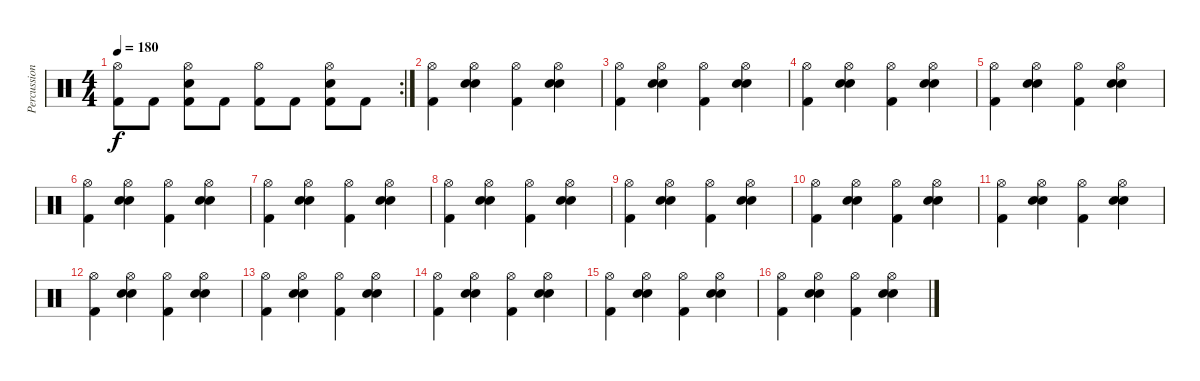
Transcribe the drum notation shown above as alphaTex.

\track ("Percussion" "Percussion") {instrument percussion}
\staff {score}
\articulation defaults
\rc 2
\ts (4 4)
\tempo 180
\clef neutral
\ks c
("Hi-Hat (open)" "Kick (hit) 2").8{dy f} "Kick (hit) 2".8 ("Hi-Hat (open)" "Snare (hit) 2" "Kick (hit) 2").8 "Kick (hit) 2".8 ("Hi-Hat (open)" "Kick (hit) 2").8 "Kick (hit) 2".8 ("Hi-Hat (open)" "Snare (hit) 2" "Kick (hit) 2").8 "Kick (hit) 2".8 |
("Hi-Hat (open)" "Kick (hit) 2").4 ("Hi-Hat (open)" "Snare (hit) 2" "Snare (hit) 2").4 ("Hi-Hat (open)" "Kick (hit) 2").4 ("Hi-Hat (open)" "Snare (hit) 2" "Snare (hit) 2").4 |
("Hi-Hat (open)" "Kick (hit) 2").4 ("Hi-Hat (open)" "Snare (hit) 2" "Snare (hit) 2").4 ("Hi-Hat (open)" "Kick (hit) 2").4 ("Hi-Hat (open)" "Snare (hit) 2" "Snare (hit) 2").4 |
("Hi-Hat (open)" "Kick (hit) 2").4 ("Hi-Hat (open)" "Snare (hit) 2" "Snare (hit) 2").4 ("Hi-Hat (open)" "Kick (hit) 2").4 ("Hi-Hat (open)" "Snare (hit) 2" "Snare (hit) 2").4 |
("Hi-Hat (open)" "Kick (hit) 2").4 ("Hi-Hat (open)" "Snare (hit) 2" "Snare (hit) 2").4 ("Hi-Hat (open)" "Kick (hit) 2").4 ("Hi-Hat (open)" "Snare (hit) 2" "Snare (hit) 2").4 |
("Hi-Hat (open)" "Kick (hit) 2").4 ("Hi-Hat (open)" "Snare (hit) 2" "Snare (hit) 2").4 ("Hi-Hat (open)" "Kick (hit) 2").4 ("Hi-Hat (open)" "Snare (hit) 2" "Snare (hit) 2").4 |
("Hi-Hat (open)" "Kick (hit) 2").4 ("Hi-Hat (open)" "Snare (hit) 2" "Snare (hit) 2").4 ("Hi-Hat (open)" "Kick (hit) 2").4 ("Hi-Hat (open)" "Snare (hit) 2" "Snare (hit) 2").4 |
("Hi-Hat (open)" "Kick (hit) 2").4 ("Hi-Hat (open)" "Snare (hit) 2" "Snare (hit) 2").4 ("Hi-Hat (open)" "Kick (hit) 2").4 ("Hi-Hat (open)" "Snare (hit) 2" "Snare (hit) 2").4 |
("Hi-Hat (open)" "Kick (hit) 2").4 ("Hi-Hat (open)" "Snare (hit) 2" "Snare (hit) 2").4 ("Hi-Hat (open)" "Kick (hit) 2").4 ("Hi-Hat (open)" "Snare (hit) 2" "Snare (hit) 2").4 |
("Hi-Hat (open)" "Kick (hit) 2").4 ("Hi-Hat (open)" "Snare (hit) 2" "Snare (hit) 2").4 ("Hi-Hat (open)" "Kick (hit) 2").4 ("Hi-Hat (open)" "Snare (hit) 2" "Snare (hit) 2").4 |
("Hi-Hat (open)" "Kick (hit) 2").4 ("Hi-Hat (open)" "Snare (hit) 2" "Snare (hit) 2").4 ("Hi-Hat (open)" "Kick (hit) 2").4 ("Hi-Hat (open)" "Snare (hit) 2" "Snare (hit) 2").4 |
("Hi-Hat (open)" "Kick (hit) 2").4 ("Hi-Hat (open)" "Snare (hit) 2" "Snare (hit) 2").4 ("Hi-Hat (open)" "Kick (hit) 2").4 ("Hi-Hat (open)" "Snare (hit) 2" "Snare (hit) 2").4 |
("Hi-Hat (open)" "Kick (hit) 2").4 ("Hi-Hat (open)" "Snare (hit) 2" "Snare (hit) 2").4 ("Hi-Hat (open)" "Kick (hit) 2").4 ("Hi-Hat (open)" "Snare (hit) 2" "Snare (hit) 2").4 |
("Hi-Hat (open)" "Kick (hit) 2").4 ("Hi-Hat (open)" "Snare (hit) 2" "Snare (hit) 2").4 ("Hi-Hat (open)" "Kick (hit) 2").4 ("Hi-Hat (open)" "Snare (hit) 2" "Snare (hit) 2").4 |
("Hi-Hat (open)" "Kick (hit) 2").4 ("Hi-Hat (open)" "Snare (hit) 2" "Snare (hit) 2").4 ("Hi-Hat (open)" "Kick (hit) 2").4 ("Hi-Hat (open)" "Snare (hit) 2" "Snare (hit) 2").4 |
("Hi-Hat (open)" "Kick (hit) 2").4 ("Hi-Hat (open)" "Snare (hit) 2" "Snare (hit) 2").4 ("Hi-Hat (open)" "Kick (hit) 2").4 ("Hi-Hat (open)" "Snare (hit) 2" "Snare (hit) 2").4
